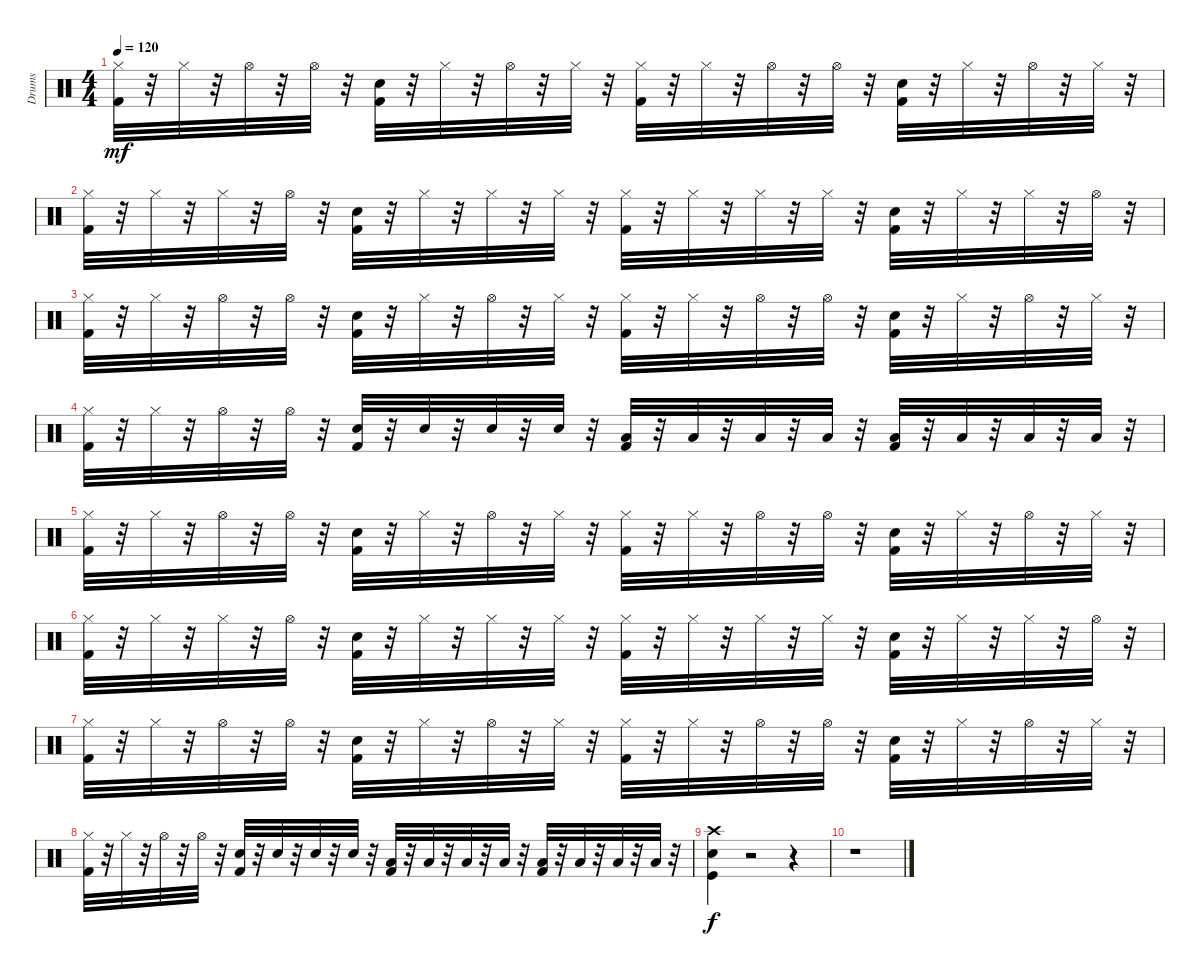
\track ("Drums" "Drums") {instrument percussion}
\staff {score}
\articulation defaults
\ts (4 4)
\tempo 120
\clef neutral
\ks c
("Hi-Hat (closed)" "Kick (hit) 2").32{dy mf} r.32 "Hi-Hat (closed)".32 r.32 "Hi-Hat (open)".32 r.32 "Hi-Hat (open)".32 r.32 ("Electric Snare (hit)" "Kick (hit) 2").32 r.32 "Hi-Hat (closed)".32 r.32 "Hi-Hat (open)".32 r.32 "Hi-Hat (closed)".32 r.32 ("Hi-Hat (closed)" "Kick (hit) 2").32 r.32 "Hi-Hat (closed)".32 r.32 "Hi-Hat (open)".32 r.32 "Hi-Hat (open)".32 r.32 ("Electric Snare (hit)" "Kick (hit) 2").32 r.32 "Hi-Hat (closed)".32 r.32 "Hi-Hat (open)".32 r.32 "Hi-Hat (closed)".32 r.32 |
("Hi-Hat (closed)" "Kick (hit) 2").32 r.32 "Hi-Hat (closed)".32 r.32 "Hi-Hat (closed)".32 r.32 "Hi-Hat (open)".32 r.32 ("Electric Snare (hit)" "Kick (hit) 2").32 r.32 "Hi-Hat (closed)".32 r.32 "Hi-Hat (closed)".32 r.32 "Hi-Hat (closed)".32 r.32 ("Hi-Hat (closed)" "Kick (hit) 2").32 r.32 "Hi-Hat (closed)".32 r.32 "Hi-Hat (closed)".32 r.32 "Hi-Hat (closed)".32 r.32 ("Electric Snare (hit)" "Kick (hit) 2").32 r.32 "Hi-Hat (closed)".32 r.32 "Hi-Hat (closed)".32 r.32 "Hi-Hat (open)".32 r.32 |
("Hi-Hat (closed)" "Kick (hit) 2").32 r.32 "Hi-Hat (closed)".32 r.32 "Hi-Hat (open)".32 r.32 "Hi-Hat (open)".32 r.32 ("Electric Snare (hit)" "Kick (hit) 2").32 r.32 "Hi-Hat (closed)".32 r.32 "Hi-Hat (open)".32 r.32 "Hi-Hat (closed)".32 r.32 ("Hi-Hat (closed)" "Kick (hit) 2").32 r.32 "Hi-Hat (closed)".32 r.32 "Hi-Hat (open)".32 r.32 "Hi-Hat (open)".32 r.32 ("Electric Snare (hit)" "Kick (hit) 2").32 r.32 "Hi-Hat (closed)".32 r.32 "Hi-Hat (open)".32 r.32 "Hi-Hat (closed)".32 r.32 |
("Hi-Hat (closed)" "Kick (hit) 2").32 r.32 "Hi-Hat (closed)".32 r.32 "Hi-Hat (open)".32 r.32 "Hi-Hat (open)".32 r.32 ("Electric Snare (hit)" "Kick (hit) 2").32 r.32 "Electric Snare (hit)".32 r.32 "Electric Snare (hit)".32 r.32 "Electric Snare (hit)".32 r.32 ("Low Tom (hit)" "Kick (hit) 2").32 r.32 "Low Tom (hit)".32 r.32 "Low Tom (hit)".32 r.32 "Low Tom (hit)".32 r.32 ("Low Floor Tom (hit)" "Kick (hit) 2").32 r.32 "Low Floor Tom (hit)".32 r.32 "Low Floor Tom (hit)".32 r.32 "Low Floor Tom (hit)".32 r.32 |
("Hi-Hat (closed)" "Kick (hit) 2").32 r.32 "Hi-Hat (closed)".32 r.32 "Hi-Hat (open)".32 r.32 "Hi-Hat (open)".32 r.32 ("Electric Snare (hit)" "Kick (hit) 2").32 r.32 "Hi-Hat (closed)".32 r.32 "Hi-Hat (open)".32 r.32 "Hi-Hat (closed)".32 r.32 ("Hi-Hat (closed)" "Kick (hit) 2").32 r.32 "Hi-Hat (closed)".32 r.32 "Hi-Hat (open)".32 r.32 "Hi-Hat (open)".32 r.32 ("Electric Snare (hit)" "Kick (hit) 2").32 r.32 "Hi-Hat (closed)".32 r.32 "Hi-Hat (open)".32 r.32 "Hi-Hat (closed)".32 r.32 |
("Hi-Hat (closed)" "Kick (hit) 2").32 r.32 "Hi-Hat (closed)".32 r.32 "Hi-Hat (closed)".32 r.32 "Hi-Hat (open)".32 r.32 ("Electric Snare (hit)" "Kick (hit) 2").32 r.32 "Hi-Hat (closed)".32 r.32 "Hi-Hat (closed)".32 r.32 "Hi-Hat (closed)".32 r.32 ("Hi-Hat (closed)" "Kick (hit) 2").32 r.32 "Hi-Hat (closed)".32 r.32 "Hi-Hat (closed)".32 r.32 "Hi-Hat (closed)".32 r.32 ("Electric Snare (hit)" "Kick (hit) 2").32 r.32 "Hi-Hat (closed)".32 r.32 "Hi-Hat (closed)".32 r.32 "Hi-Hat (open)".32 r.32 |
("Hi-Hat (closed)" "Kick (hit) 2").32 r.32 "Hi-Hat (closed)".32 r.32 "Hi-Hat (open)".32 r.32 "Hi-Hat (open)".32 r.32 ("Electric Snare (hit)" "Kick (hit) 2").32 r.32 "Hi-Hat (closed)".32 r.32 "Hi-Hat (open)".32 r.32 "Hi-Hat (closed)".32 r.32 ("Hi-Hat (closed)" "Kick (hit) 2").32 r.32 "Hi-Hat (closed)".32 r.32 "Hi-Hat (open)".32 r.32 "Hi-Hat (open)".32 r.32 ("Electric Snare (hit)" "Kick (hit) 2").32 r.32 "Hi-Hat (closed)".32 r.32 "Hi-Hat (open)".32 r.32 "Hi-Hat (closed)".32 r.32 |
("Hi-Hat (closed)" "Kick (hit) 2").32 r.32 "Hi-Hat (closed)".32 r.32 "Hi-Hat (open)".32 r.32 "Hi-Hat (open)".32 r.32 ("Electric Snare (hit)" "Kick (hit) 2").32 r.32 "Electric Snare (hit)".32 r.32 "Electric Snare (hit)".32 r.32 "Electric Snare (hit)".32 r.32 ("Low Tom (hit)" "Kick (hit) 2").32 r.32 "Low Tom (hit)".32 r.32 "Low Tom (hit)".32 r.32 "Low Tom (hit)".32 r.32 ("Low Floor Tom (hit)" "Kick (hit) 2").32 r.32 "Low Floor Tom (hit)".32 r.32 "Low Floor Tom (hit)".32 r.32 "Low Floor Tom (hit)".32 r.32 |
("Kick (hit)" "Snare (hit) 2" "Crash high (hit)").4{dy f} r.2 r.4 |
r.1
